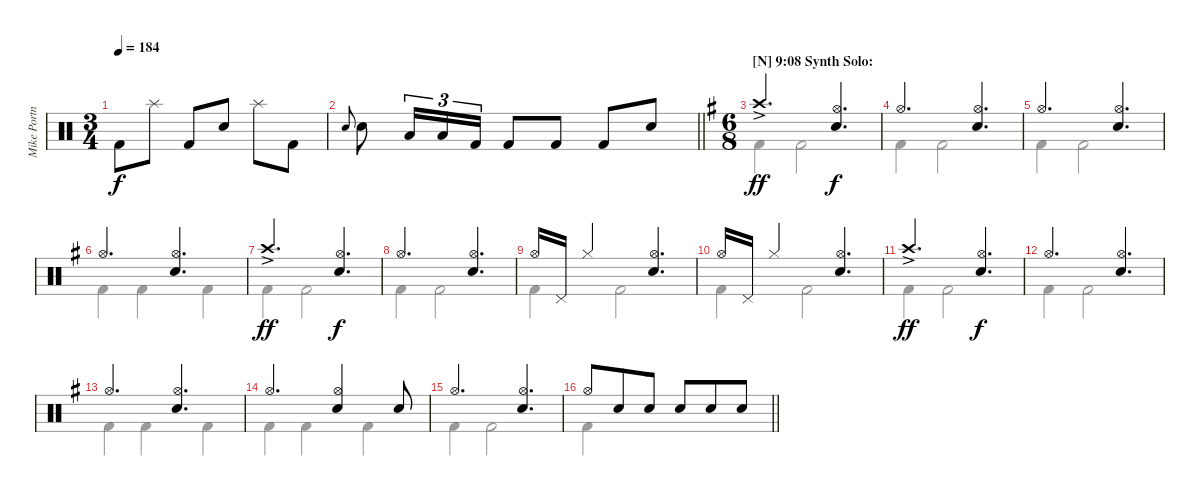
\track ("Mike Portnoy - Drum" "Mike Portn") {instrument percussion}
\staff {score}
\articulation defaults
\voice
\ts (3 4)
\tempo 184
\clef neutral
\ks c "Kick (hit) 2".8{dy f} "Splash (hit)".8 "Kick (hit) 2".8 "Electric Snare (hit)".8 "Splash (hit)".8 "Kick (hit) 2".8
|
\barLineRight lightlight "Electric Snare (hit)".8{gr onbeat} "Electric Snare (hit)".8 "Low Tom (hit)".16{tu (3 2)} "Low Tom (hit)".16{tu (3 2)} "Kick (hit) 2".16{tu (3 2)} "Kick (hit) 2".8 "Kick (hit) 2".8 "Kick (hit) 2".8 "Electric Snare (hit)".8
|
\ts (6 8)
\section ("" "[N] 9:08 Synth Solo:")
\ks g "Crash high (hit)"{ac}.4{d dy ff}
("Hi-Hat (open)" "Electric Snare (hit)").4{d dy f} |
"Hi-Hat (open)".4{d} ("Hi-Hat (open)" "Electric Snare (hit)").4{d} |
"Hi-Hat (open)".4{d} ("Hi-Hat (open)" "Electric Snare (hit)").4{d} |
"Hi-Hat (open)".4{d} ("Hi-Hat (open)" "Electric Snare (hit)").4{d} |
"Crash high (hit)"{ac}.4{d dy ff} ("Hi-Hat (open)" "Electric Snare (hit)").4{d dy f} |
"Hi-Hat (open)".4{d} ("Hi-Hat (open)" "Electric Snare (hit)").4{d} |
"Hi-Hat (open)".16 "Pedal Hi-Hat (hit)".16 "Hi-Hat (closed)".4 ("Hi-Hat (open)" "Electric Snare (hit)").4{d} |
"Hi-Hat (open)".16 "Pedal Hi-Hat (hit)".16 "Hi-Hat (closed)".4 ("Hi-Hat (open)" "Electric Snare (hit)").4{d} |
"Crash high (hit)"{ac}.4{d dy ff} ("Hi-Hat (open)" "Electric Snare (hit)").4{d dy f} |
"Hi-Hat (open)".4{d} ("Hi-Hat (open)" "Electric Snare (hit)").4{d} |
"Hi-Hat (open)".4{d} ("Hi-Hat (open)" "Electric Snare (hit)").4{d} |
"Hi-Hat (open)".4{d} ("Hi-Hat (open)" "Electric Snare (hit)").4 "Electric Snare (hit)".8 |
"Hi-Hat (open)".4{d} ("Hi-Hat (open)" "Electric Snare (hit)").4{d} |
\barLineRight lightlight "Hi-Hat (open)".8 "Electric Snare (hit)".8 "Electric Snare (hit)".8 "Electric Snare (hit)".8 "Electric Snare (hit)".8 "Electric Snare (hit)".8
\voice
\clef neutral
\ottava regular
\simile none
\ks c
|
\barLineRight lightlight
|
\ks g "Kick (hit) 2".4{dy ff} "Kick (hit) 2".2
|
"Kick (hit) 2".4 "Kick (hit) 2".2 |
"Kick (hit) 2".4 "Kick (hit) 2".2 |
"Kick (hit) 2".4 "Kick (hit) 2".4 "Kick (hit) 2".4 |
"Kick (hit) 2".4 "Kick (hit) 2".2 |
"Kick (hit) 2".4 "Kick (hit) 2".2 |
"Kick (hit) 2".4 "Kick (hit) 2".2 |
"Kick (hit) 2".4 "Kick (hit) 2".2 |
"Kick (hit) 2".4 "Kick (hit) 2".2 |
"Kick (hit) 2".4 "Kick (hit) 2".2 |
"Kick (hit) 2".4 "Kick (hit) 2".4 "Kick (hit) 2".4 |
"Kick (hit) 2".4 "Kick (hit) 2".4 "Kick (hit) 2".4 |
"Kick (hit) 2".4 "Kick (hit) 2".2 |
\barLineRight lightlight "Kick (hit) 2".4
r.2
